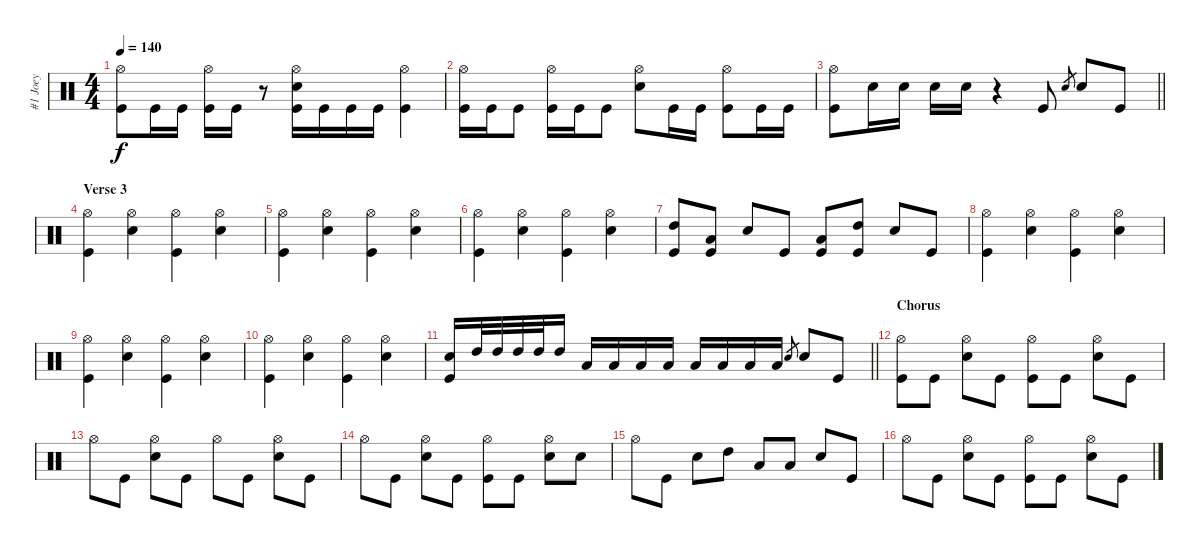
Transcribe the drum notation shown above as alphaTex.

\track ("#1 Joey" "#1 Joey") {solo instrument percussion}
\staff {score}
\articulation defaults
\ts (4 4)
\tempo 140
\clef neutral
\ks c
("Hi-Hat (open)" "Kick (hit)").8{dy f} "Kick (hit)".16 "Kick (hit)".16 ("Hi-Hat (open)" "Kick (hit)").16 "Kick (hit)".16 r.8 ("Hi-Hat (open)" "Electric Snare (hit)" "Kick (hit)").16 "Kick (hit)".16 "Kick (hit)".16 "Kick (hit)".16 ("Hi-Hat (open)" "Kick (hit)").4 |
("Hi-Hat (open)" "Kick (hit)").16 "Kick (hit)".16 "Kick (hit)".8 ("Hi-Hat (open)" "Kick (hit)").16 "Kick (hit)".16 "Kick (hit)".8 ("Hi-Hat (open)" "Electric Snare (hit)").8 "Kick (hit)".16 "Kick (hit)".16 ("Hi-Hat (open)" "Kick (hit)").8 "Kick (hit)".16 "Kick (hit)".16 |
\barLineRight lightlight
("Hi-Hat (open)" "Kick (hit)").8 "Electric Snare (hit)".16 "Electric Snare (hit)".16 "Electric Snare (hit)".16 "Electric Snare (hit)".16 r.4 "Kick (hit)".8 "Electric Snare (hit)".8{gr} "Electric Snare (hit)".8 "Kick (hit)".8 |
\section ("" "Verse 3")
("Hi-Hat (open)" "Kick (hit)").4 ("Hi-Hat (open)" "Electric Snare (hit)").4 ("Hi-Hat (open)" "Kick (hit)").4 ("Hi-Hat (open)" "Electric Snare (hit)").4 |
("Hi-Hat (open)" "Kick (hit)").4 ("Hi-Hat (open)" "Electric Snare (hit)").4 ("Hi-Hat (open)" "Kick (hit)").4 ("Hi-Hat (open)" "Electric Snare (hit)").4 |
("Hi-Hat (open)" "Kick (hit)").4 ("Hi-Hat (open)" "Electric Snare (hit)").4 ("Hi-Hat (open)" "Kick (hit)").4 ("Hi-Hat (open)" "Electric Snare (hit)").4 |
("High Tom (hit)" "Kick (hit)").8 ("Low Tom (hit)" "Kick (hit)").8 "Electric Snare (hit)".8 "Kick (hit)".8 ("Low Tom (hit)" "Kick (hit)").8 ("High Tom (hit)" "Kick (hit)").8 "Electric Snare (hit)".8 "Kick (hit)".8 |
("Hi-Hat (open)" "Kick (hit)").4 ("Hi-Hat (open)" "Electric Snare (hit)").4 ("Hi-Hat (open)" "Kick (hit)").4 ("Hi-Hat (open)" "Electric Snare (hit)").4 |
("Hi-Hat (open)" "Kick (hit)").4 ("Hi-Hat (open)" "Electric Snare (hit)").4 ("Hi-Hat (open)" "Kick (hit)").4 ("Hi-Hat (open)" "Electric Snare (hit)").4 |
("Hi-Hat (open)" "Kick (hit)").4 ("Hi-Hat (open)" "Electric Snare (hit)").4 ("Hi-Hat (open)" "Kick (hit)").4 ("Hi-Hat (open)" "Electric Snare (hit)").4 |
\barLineRight lightlight
("Electric Snare (hit)" "Kick (hit)").16 "High Tom (hit)".32 "High Tom (hit)".32 "High Tom (hit)".32 "High Tom (hit)".32 "High Tom (hit)".16 "Low Tom (hit)".16 "Low Tom (hit)".16 "Low Tom (hit)".16 "Low Tom (hit)".16 "Low Floor Tom (hit)".16 "Low Floor Tom (hit)".16 "Low Floor Tom (hit)".16 "Low Floor Tom (hit)".16 "Electric Snare (hit)".8{gr} "Electric Snare (hit)".8 "Kick (hit)".8 |
\section ("" "Chorus")
("Hi-Hat (open)" "Kick (hit)").8 "Kick (hit)".8 ("Hi-Hat (open)" "Electric Snare (hit)").8 "Kick (hit)".8 ("Hi-Hat (open)" "Kick (hit)").8 "Kick (hit)".8 ("Hi-Hat (open)" "Electric Snare (hit)").8 "Kick (hit)".8 |
"Hi-Hat (open)".8 "Kick (hit)".8 ("Hi-Hat (open)" "Electric Snare (hit)").8 "Kick (hit)".8 "Hi-Hat (open)".8 "Kick (hit)".8 ("Hi-Hat (open)" "Electric Snare (hit)").8 "Kick (hit)".8 |
"Hi-Hat (open)".8 "Kick (hit)".8 ("Hi-Hat (open)" "Electric Snare (hit)").8 "Kick (hit)".8 ("Hi-Hat (open)" "Kick (hit)").8 "Kick (hit)".8 ("Hi-Hat (open)" "Electric Snare (hit)").8 "Electric Snare (hit)".8 |
"Hi-Hat (open)".8 "Kick (hit)".8 "Electric Snare (hit)".8 "High Tom (hit)".8 "Low Tom (hit)".8 "Low Floor Tom (hit)".8 "Electric Snare (hit)".8 "Kick (hit)".8 |
"Hi-Hat (open)".8 "Kick (hit)".8 ("Hi-Hat (open)" "Electric Snare (hit)").8 "Kick (hit)".8 ("Hi-Hat (open)" "Kick (hit)").8 "Kick (hit)".8 ("Hi-Hat (open)" "Electric Snare (hit)").8 "Kick (hit)".8
